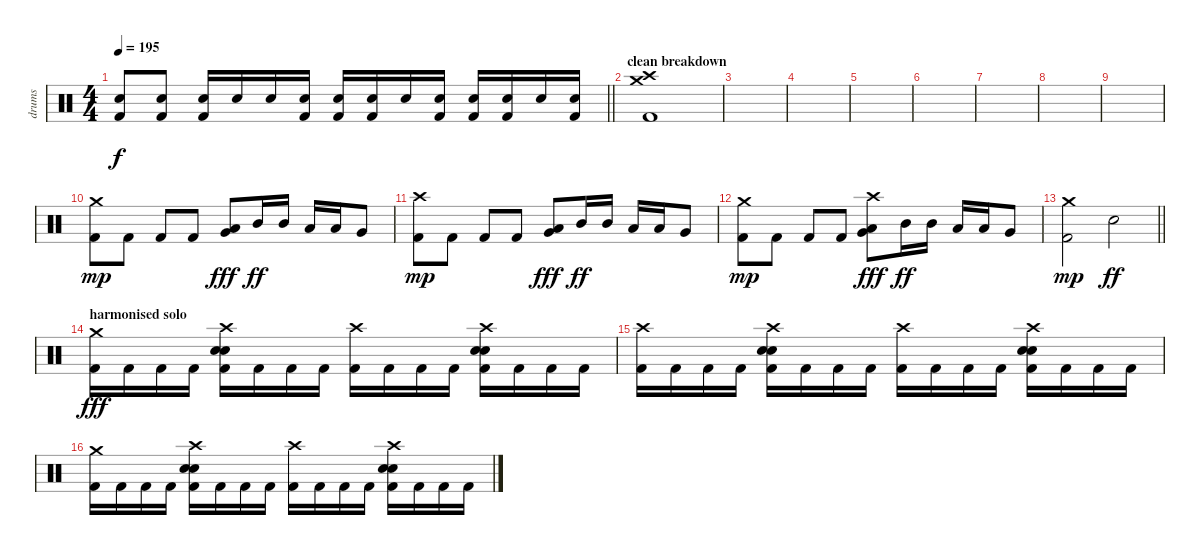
\track ("drums" "drums") {instrument percussion bank 16}
\staff {score}
\articulation defaults
\ts (4 4)
\tempo 195
\clef neutral
\barLineRight lightlight
\ks c
("Electric Snare (hit)" "Kick (hit) 2").8{dy f} ("Electric Snare (hit)" "Kick (hit) 2").8 ("Electric Snare (hit)" "Kick (hit) 2").16 "Electric Snare (hit)".16 "Electric Snare (hit)".16 ("Electric Snare (hit)" "Kick (hit) 2").16 ("Electric Snare (hit)" "Kick (hit) 2").16 ("Electric Snare (hit)" "Kick (hit) 2").16 "Electric Snare (hit)".16 ("Electric Snare (hit)" "Kick (hit) 2").16 ("Electric Snare (hit)" "Kick (hit) 2").16 ("Electric Snare (hit)" "Kick (hit) 2").16 "Electric Snare (hit)".16 ("Electric Snare (hit)" "Kick (hit) 2").16 |
\section ("" "clean breakdown")
("Crash medium (hit)" "Crash high (hit)" "Kick (hit) 2").1 |
|
|
|
|
|
|
|
("Crash medium (hit)" "Kick (hit) 2").8{dy mp} "Kick (hit) 2".8 "Kick (hit) 2".8 "Kick (hit) 2".8 ("Low Tom (hit)" "Very Low Tom (hit)").8{dy fff} "Mid Tom (hit)".16{dy ff} "Mid Tom (hit)".16 "Low Tom (hit)".16 "Low Tom (hit)".16 "Very Low Tom (hit)".8 |
("Crash high (hit)" "Kick (hit) 2").8{dy mp} "Kick (hit) 2".8 "Kick (hit) 2".8 "Kick (hit) 2".8 ("Low Tom (hit)" "Very Low Tom (hit)").8{dy fff} "Mid Tom (hit)".16{dy ff} "Mid Tom (hit)".16 "Low Tom (hit)".16 "Low Tom (hit)".16 "Very Low Tom (hit)".8 |
("Crash medium (hit)" "Kick (hit) 2").8{dy mp} "Kick (hit) 2".8 "Kick (hit) 2".8 "Kick (hit) 2".8 ("Crash high (hit)" "Low Tom (hit)" "Very Low Tom (hit)").8{dy fff} "Mid Tom (hit)".16{dy ff} "Mid Tom (hit)".16 "Low Tom (hit)".16 "Low Tom (hit)".16 "Very Low Tom (hit)".8 |
\barLineRight lightlight
("Crash medium (hit)" "Kick (hit) 2").2{dy mp} "Electric Snare (hit)".2{dy ff} |
\section ("" "harmonised solo")
("Crash medium (hit)" "Kick (hit) 2").16{dy fff} "Kick (hit) 2".16 "Kick (hit) 2".16 "Kick (hit) 2".16 ("Crash high (hit)" "Electric Snare (hit)" "Electric Snare (hit)" "Kick (hit) 2").16 "Kick (hit) 2".16 "Kick (hit) 2".16 "Kick (hit) 2".16 ("Crash high (hit)" "Kick (hit) 2").16 "Kick (hit) 2".16 "Kick (hit) 2".16 "Kick (hit) 2".16 ("Crash high (hit)" "Electric Snare (hit)" "Electric Snare (hit)" "Kick (hit) 2").16 "Kick (hit) 2".16 "Kick (hit) 2".16 "Kick (hit) 2".16 |
("Crash high (hit)" "Kick (hit) 2").16 "Kick (hit) 2".16 "Kick (hit) 2".16 "Kick (hit) 2".16 ("Crash high (hit)" "Electric Snare (hit)" "Electric Snare (hit)" "Kick (hit) 2").16 "Kick (hit) 2".16 "Kick (hit) 2".16 "Kick (hit) 2".16 ("Crash high (hit)" "Kick (hit) 2").16 "Kick (hit) 2".16 "Kick (hit) 2".16 "Kick (hit) 2".16 ("Crash high (hit)" "Electric Snare (hit)" "Electric Snare (hit)" "Kick (hit) 2").16 "Kick (hit) 2".16 "Kick (hit) 2".16 "Kick (hit) 2".16 |
("Crash medium (hit)" "Kick (hit) 2").16 "Kick (hit) 2".16 "Kick (hit) 2".16 "Kick (hit) 2".16 ("Crash high (hit)" "Electric Snare (hit)" "Electric Snare (hit)" "Kick (hit) 2").16 "Kick (hit) 2".16 "Kick (hit) 2".16 "Kick (hit) 2".16 ("Crash high (hit)" "Kick (hit) 2").16 "Kick (hit) 2".16 "Kick (hit) 2".16 "Kick (hit) 2".16 ("Crash high (hit)" "Electric Snare (hit)" "Electric Snare (hit)" "Kick (hit) 2").16 "Kick (hit) 2".16 "Kick (hit) 2".16 "Kick (hit) 2".16
